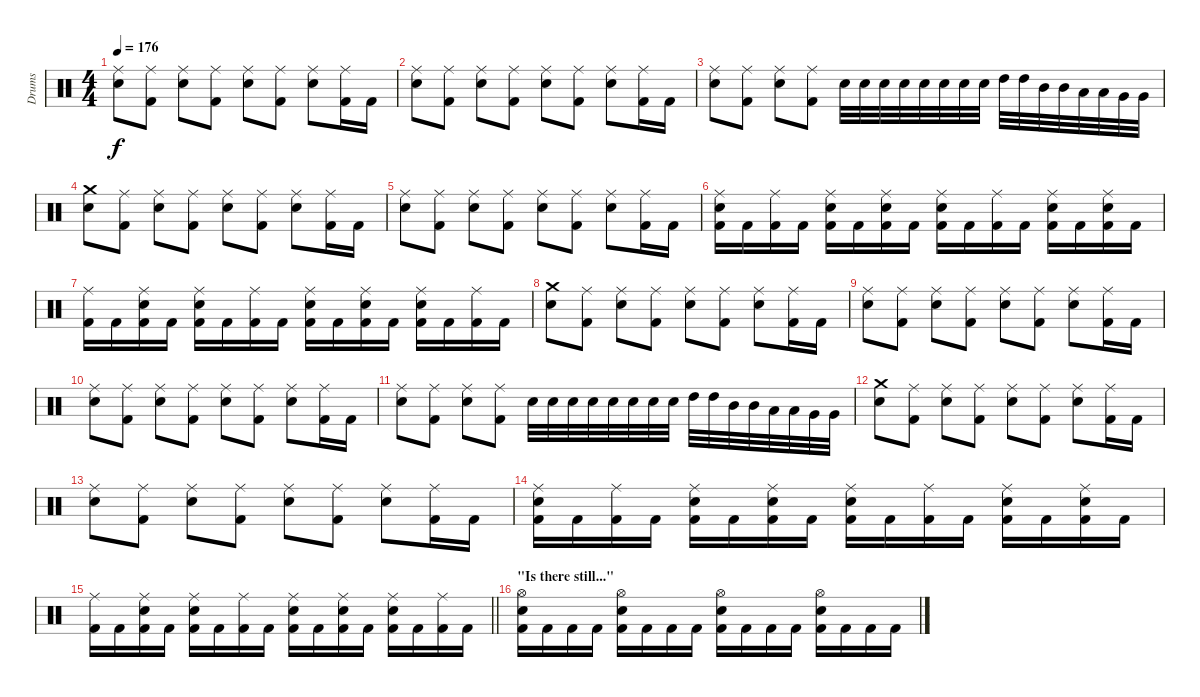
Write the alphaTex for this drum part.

\track ("Drums" "Drums") {instrument percussion}
\staff {score}
\articulation defaults
\ts (4 4)
\tempo 176
\clef neutral
\ks c
("Ride (middle)" "Snare (hit) 2").8{dy f} ("Ride (middle)" "Kick (hit) 2").8 ("Ride (middle)" "Snare (hit) 2").8 ("Ride (middle)" "Kick (hit) 2").8 ("Ride (middle)" "Snare (hit) 2").8 ("Ride (middle)" "Kick (hit) 2").8 ("Ride (middle)" "Snare (hit) 2").8 ("Ride (middle)" "Kick (hit) 2").16 "Kick (hit) 2".16 |
("Ride (middle)" "Snare (hit) 2").8 ("Ride (middle)" "Kick (hit) 2").8 ("Ride (middle)" "Snare (hit) 2").8 ("Ride (middle)" "Kick (hit) 2").8 ("Ride (middle)" "Snare (hit) 2").8 ("Ride (middle)" "Kick (hit) 2").8 ("Ride (middle)" "Snare (hit) 2").8 ("Ride (middle)" "Kick (hit) 2").16 "Kick (hit) 2".16 |
("Ride (middle)" "Snare (hit) 2").8 ("Ride (middle)" "Kick (hit) 2").8 ("Ride (middle)" "Snare (hit) 2").8 ("Ride (middle)" "Kick (hit) 2").8 "Snare (hit) 2".32 "Snare (hit) 2".32 "Snare (hit) 2".32 "Snare (hit) 2".32 "Snare (hit) 2".32 "Snare (hit) 2".32 "Snare (hit) 2".32 "Snare (hit) 2".32 "High Tom (hit)".32 "High Tom (hit)".32 "Mid Tom (hit)".32 "Mid Tom (hit)".32 "Low Tom (hit)".32 "Low Tom (hit)".32 "Very Low Tom (hit)".32 "Very Low Tom (hit)".32 |
("Crash medium (hit)" "Snare (hit) 2").8 ("Ride (middle)" "Kick (hit) 2").8 ("Ride (middle)" "Snare (hit) 2").8 ("Ride (middle)" "Kick (hit) 2").8 ("Ride (middle)" "Snare (hit) 2").8 ("Ride (middle)" "Kick (hit) 2").8 ("Ride (middle)" "Snare (hit) 2").8 ("Ride (middle)" "Kick (hit) 2").16 "Kick (hit) 2".16 |
("Ride (middle)" "Snare (hit) 2").8 ("Ride (middle)" "Kick (hit) 2").8 ("Ride (middle)" "Snare (hit) 2").8 ("Ride (middle)" "Kick (hit) 2").8 ("Ride (middle)" "Snare (hit) 2").8 ("Ride (middle)" "Kick (hit) 2").8 ("Ride (middle)" "Snare (hit) 2").8 ("Ride (middle)" "Kick (hit) 2").16 "Kick (hit) 2".16 |
("Ride (middle)" "Snare (hit) 2" "Kick (hit) 2").16 "Kick (hit) 2".16 ("Ride (middle)" "Kick (hit) 2").16 "Kick (hit) 2".16 ("Ride (middle)" "Snare (hit) 2" "Kick (hit) 2").16 "Kick (hit) 2".16 ("Ride (middle)" "Snare (hit) 2" "Kick (hit) 2").16 "Kick (hit) 2".16 ("Ride (middle)" "Snare (hit) 2" "Kick (hit) 2").16 "Kick (hit) 2".16 ("Ride (middle)" "Kick (hit) 2").16 "Kick (hit) 2".16 ("Ride (middle)" "Snare (hit) 2" "Kick (hit) 2").16 "Kick (hit) 2".16 ("Ride (middle)" "Snare (hit) 2" "Kick (hit) 2").16 "Kick (hit) 2".16 |
("Ride (middle)" "Kick (hit) 2").16 "Kick (hit) 2".16 ("Ride (middle)" "Snare (hit) 2" "Kick (hit) 2").16 "Kick (hit) 2".16 ("Ride (middle)" "Snare (hit) 2" "Kick (hit) 2").16 "Kick (hit) 2".16 ("Ride (middle)" "Kick (hit) 2").16 "Kick (hit) 2".16 ("Ride (middle)" "Snare (hit) 2" "Kick (hit) 2").16 "Kick (hit) 2".16 ("Ride (middle)" "Snare (hit) 2" "Kick (hit) 2").16 "Kick (hit) 2".16 ("Ride (middle)" "Snare (hit) 2" "Kick (hit) 2").16 "Kick (hit) 2".16 ("Ride (middle)" "Kick (hit) 2").16 "Kick (hit) 2".16 |
("Crash medium (hit)" "Snare (hit) 2").8 ("Ride (middle)" "Kick (hit) 2").8 ("Ride (middle)" "Snare (hit) 2").8 ("Ride (middle)" "Kick (hit) 2").8 ("Ride (middle)" "Snare (hit) 2").8 ("Ride (middle)" "Kick (hit) 2").8 ("Ride (middle)" "Snare (hit) 2").8 ("Ride (middle)" "Kick (hit) 2").16 "Kick (hit) 2".16 |
("Ride (middle)" "Snare (hit) 2").8 ("Ride (middle)" "Kick (hit) 2").8 ("Ride (middle)" "Snare (hit) 2").8 ("Ride (middle)" "Kick (hit) 2").8 ("Ride (middle)" "Snare (hit) 2").8 ("Ride (middle)" "Kick (hit) 2").8 ("Ride (middle)" "Snare (hit) 2").8 ("Ride (middle)" "Kick (hit) 2").16 "Kick (hit) 2".16 |
("Ride (middle)" "Snare (hit) 2").8 ("Ride (middle)" "Kick (hit) 2").8 ("Ride (middle)" "Snare (hit) 2").8 ("Ride (middle)" "Kick (hit) 2").8 ("Ride (middle)" "Snare (hit) 2").8 ("Ride (middle)" "Kick (hit) 2").8 ("Ride (middle)" "Snare (hit) 2").8 ("Ride (middle)" "Kick (hit) 2").16 "Kick (hit) 2".16 |
("Ride (middle)" "Snare (hit) 2").8 ("Ride (middle)" "Kick (hit) 2").8 ("Ride (middle)" "Snare (hit) 2").8 ("Ride (middle)" "Kick (hit) 2").8 "Snare (hit) 2".32 "Snare (hit) 2".32 "Snare (hit) 2".32 "Snare (hit) 2".32 "Snare (hit) 2".32 "Snare (hit) 2".32 "Snare (hit) 2".32 "Snare (hit) 2".32 "High Tom (hit)".32 "High Tom (hit)".32 "Mid Tom (hit)".32 "Mid Tom (hit)".32 "Low Tom (hit)".32 "Low Tom (hit)".32 "Very Low Tom (hit)".32 "Very Low Tom (hit)".32 |
("Crash medium (hit)" "Snare (hit) 2").8 ("Ride (middle)" "Kick (hit) 2").8 ("Ride (middle)" "Snare (hit) 2").8 ("Ride (middle)" "Kick (hit) 2").8 ("Ride (middle)" "Snare (hit) 2").8 ("Ride (middle)" "Kick (hit) 2").8 ("Ride (middle)" "Snare (hit) 2").8 ("Ride (middle)" "Kick (hit) 2").16 "Kick (hit) 2".16 |
("Ride (middle)" "Snare (hit) 2").8 ("Ride (middle)" "Kick (hit) 2").8 ("Ride (middle)" "Snare (hit) 2").8 ("Ride (middle)" "Kick (hit) 2").8 ("Ride (middle)" "Snare (hit) 2").8 ("Ride (middle)" "Kick (hit) 2").8 ("Ride (middle)" "Snare (hit) 2").8 ("Ride (middle)" "Kick (hit) 2").16 "Kick (hit) 2".16 |
("Ride (middle)" "Snare (hit) 2" "Kick (hit) 2").16 "Kick (hit) 2".16 ("Ride (middle)" "Kick (hit) 2").16 "Kick (hit) 2".16 ("Ride (middle)" "Snare (hit) 2" "Kick (hit) 2").16 "Kick (hit) 2".16 ("Ride (middle)" "Snare (hit) 2" "Kick (hit) 2").16 "Kick (hit) 2".16 ("Ride (middle)" "Snare (hit) 2" "Kick (hit) 2").16 "Kick (hit) 2".16 ("Ride (middle)" "Kick (hit) 2").16 "Kick (hit) 2".16 ("Ride (middle)" "Snare (hit) 2" "Kick (hit) 2").16 "Kick (hit) 2".16 ("Ride (middle)" "Snare (hit) 2" "Kick (hit) 2").16 "Kick (hit) 2".16 |
\barLineRight lightlight
("Ride (middle)" "Kick (hit) 2").16 "Kick (hit) 2".16 ("Ride (middle)" "Snare (hit) 2" "Kick (hit) 2").16 "Kick (hit) 2".16 ("Ride (middle)" "Snare (hit) 2" "Kick (hit) 2").16 "Kick (hit) 2".16 ("Ride (middle)" "Kick (hit) 2").16 "Kick (hit) 2".16 ("Ride (middle)" "Snare (hit) 2" "Kick (hit) 2").16 "Kick (hit) 2".16 ("Ride (middle)" "Snare (hit) 2" "Kick (hit) 2").16 "Kick (hit) 2".16 ("Ride (middle)" "Snare (hit) 2" "Kick (hit) 2").16 "Kick (hit) 2".16 ("Ride (middle)" "Kick (hit) 2").16 "Kick (hit) 2".16 |
\section ("" "\"Is there still...\"")
("Hi-Hat (open)" "Snare (hit) 2" "Kick (hit) 2").16 "Kick (hit) 2".16 "Kick (hit) 2".16 "Kick (hit) 2".16 ("Hi-Hat (open)" "Snare (hit) 2" "Kick (hit) 2").16 "Kick (hit) 2".16 "Kick (hit) 2".16 "Kick (hit) 2".16 ("Hi-Hat (open)" "Snare (hit) 2" "Kick (hit) 2").16 "Kick (hit) 2".16 "Kick (hit) 2".16 "Kick (hit) 2".16 ("Hi-Hat (open)" "Snare (hit) 2" "Kick (hit) 2").16 "Kick (hit) 2".16 "Kick (hit) 2".16 "Kick (hit) 2".16
